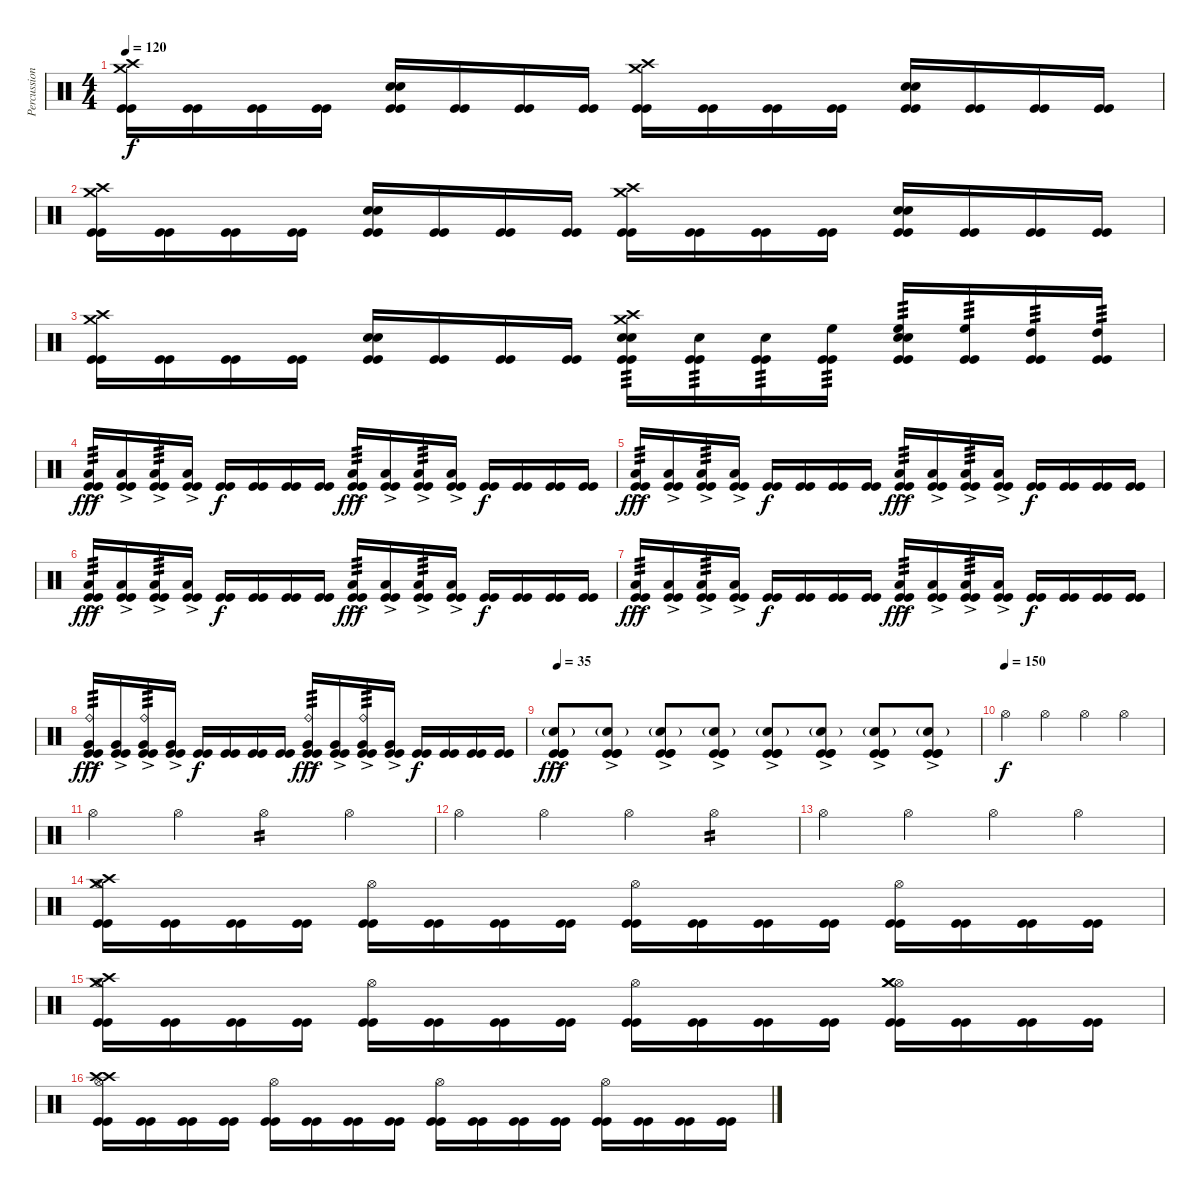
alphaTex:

\track ("Percussions" "Percussion") {instrument percussion}
\staff {score}
\articulation defaults
\ts (4 4)
\tempo 120
\clef neutral
\ks c
("Crash medium (hit)" "Crash high (hit)" "Kick (hit)" "Kick (hit)").16{dy f} ("Kick (hit)" "Kick (hit)").16 ("Kick (hit)" "Kick (hit)").16 ("Kick (hit)" "Kick (hit)").16 ("Snare (hit) 2" "Snare (hit) 2" "Kick (hit)" "Kick (hit)").16 ("Kick (hit)" "Kick (hit)").16 ("Kick (hit)" "Kick (hit)").16 ("Kick (hit)" "Kick (hit)").16 ("Crash high (hit)" "Crash medium (hit)" "Kick (hit)" "Kick (hit)").16 ("Kick (hit)" "Kick (hit)").16 ("Kick (hit)" "Kick (hit)").16 ("Kick (hit)" "Kick (hit)").16 ("Snare (hit) 2" "Snare (hit) 2" "Kick (hit)" "Kick (hit)").16 ("Kick (hit)" "Kick (hit)").16 ("Kick (hit)" "Kick (hit)").16 ("Kick (hit)" "Kick (hit)").16 |
("Crash medium (hit)" "Crash high (hit)" "Kick (hit)" "Kick (hit)").16 ("Kick (hit)" "Kick (hit)").16 ("Kick (hit)" "Kick (hit)").16 ("Kick (hit)" "Kick (hit)").16 ("Snare (hit) 2" "Snare (hit) 2" "Kick (hit)" "Kick (hit)").16 ("Kick (hit)" "Kick (hit)").16 ("Kick (hit)" "Kick (hit)").16 ("Kick (hit)" "Kick (hit)").16 ("Crash high (hit)" "Crash medium (hit)" "Kick (hit)" "Kick (hit)").16 ("Kick (hit)" "Kick (hit)").16 ("Kick (hit)" "Kick (hit)").16 ("Kick (hit)" "Kick (hit)").16 ("Snare (hit) 2" "Snare (hit) 2" "Kick (hit)" "Kick (hit)").16 ("Kick (hit)" "Kick (hit)").16 ("Kick (hit)" "Kick (hit)").16 ("Kick (hit)" "Kick (hit)").16 |
("Crash medium (hit)" "Crash high (hit)" "Kick (hit)" "Kick (hit)").16 ("Kick (hit)" "Kick (hit)").16 ("Kick (hit)" "Kick (hit)").16 ("Kick (hit)" "Kick (hit)").16 ("Snare (hit) 2" "Snare (hit) 2" "Kick (hit)" "Kick (hit)").16 ("Kick (hit)" "Kick (hit)").16 ("Kick (hit)" "Kick (hit)").16 ("Kick (hit)" "Kick (hit)").16 ("Snare (hit) 2" "Snare (hit) 2" "Crash high (hit)" "Crash medium (hit)" "Kick (hit)" "Kick (hit)").16{tp 3} ("Snare (hit) 2" "Kick (hit)" "Kick (hit)").16{tp 3} ("Snare (hit) 2" "Kick (hit)" "Kick (hit)").16{tp 3} ("High Floor Tom (hit)" "Kick (hit)" "Kick (hit)").16{tp 3} ("High Floor Tom (hit)" "Snare (hit) 2" "Snare (hit) 2" "Kick (hit)" "Kick (hit)").16{tp 3} ("High Floor Tom (hit)" "Kick (hit)" "Kick (hit)").16{tp 3} ("High Tom (hit)" "Kick (hit)" "Kick (hit)").16{tp 3} ("High Tom (hit)" "Kick (hit)" "Kick (hit)").16{tp 3} |
("Low Floor Tom (hit)"{ac} "Kick (hit)" "Kick (hit)").16{tp 3 dy fff} ("Low Floor Tom (hit)"{ac} "Kick (hit)" "Kick (hit)").16 ("Low Floor Tom (hit)"{ac} "Kick (hit)" "Kick (hit)").16{tp 3} ("Low Floor Tom (hit)"{ac} "Kick (hit)" "Kick (hit)").16 ("Kick (hit)" "Kick (hit)").16{dy f} ("Kick (hit)" "Kick (hit)").16 ("Kick (hit)" "Kick (hit)").16 ("Kick (hit)" "Kick (hit)").16 ("Low Tom (hit)"{ac} "Kick (hit)" "Kick (hit)").16{tp 3 dy fff} ("Low Tom (hit)"{ac} "Kick (hit)" "Kick (hit)").16 ("Low Tom (hit)"{ac} "Kick (hit)" "Kick (hit)").16{tp 3} ("Low Tom (hit)"{ac} "Kick (hit)" "Kick (hit)").16 ("Kick (hit)" "Kick (hit)").16{dy f} ("Kick (hit)" "Kick (hit)").16 ("Kick (hit)" "Kick (hit)").16 ("Kick (hit)" "Kick (hit)").16 |
("Low Floor Tom (hit)"{ac} "Kick (hit)" "Kick (hit)").16{tp 3 dy fff} ("Low Floor Tom (hit)"{ac} "Kick (hit)" "Kick (hit)").16 ("Low Floor Tom (hit)"{ac} "Kick (hit)" "Kick (hit)").16{tp 3} ("Low Floor Tom (hit)"{ac} "Kick (hit)" "Kick (hit)").16 ("Kick (hit)" "Kick (hit)").16{dy f} ("Kick (hit)" "Kick (hit)").16 ("Kick (hit)" "Kick (hit)").16 ("Kick (hit)" "Kick (hit)").16 ("Low Tom (hit)"{ac} "Kick (hit)" "Kick (hit)").16{tp 3 dy fff} ("Low Tom (hit)"{ac} "Kick (hit)" "Kick (hit)").16 ("Low Tom (hit)"{ac} "Kick (hit)" "Kick (hit)").16{tp 3} ("Low Tom (hit)"{ac} "Kick (hit)" "Kick (hit)").16 ("Kick (hit)" "Kick (hit)").16{dy f} ("Kick (hit)" "Kick (hit)").16 ("Kick (hit)" "Kick (hit)").16 ("Kick (hit)" "Kick (hit)").16 |
("Low Floor Tom (hit)"{ac} "Kick (hit)" "Kick (hit)").16{tp 3 dy fff} ("Low Floor Tom (hit)"{ac} "Kick (hit)" "Kick (hit)").16 ("Low Floor Tom (hit)"{ac} "Kick (hit)" "Kick (hit)").16{tp 3} ("Low Floor Tom (hit)"{ac} "Kick (hit)" "Kick (hit)").16 ("Kick (hit)" "Kick (hit)").16{dy f} ("Kick (hit)" "Kick (hit)").16 ("Kick (hit)" "Kick (hit)").16 ("Kick (hit)" "Kick (hit)").16 ("Low Tom (hit)"{ac} "Kick (hit)" "Kick (hit)").16{tp 3 dy fff} ("Low Tom (hit)"{ac} "Kick (hit)" "Kick (hit)").16 ("Low Tom (hit)"{ac} "Kick (hit)" "Kick (hit)").16{tp 3} ("Low Tom (hit)"{ac} "Kick (hit)" "Kick (hit)").16 ("Kick (hit)" "Kick (hit)").16{dy f} ("Kick (hit)" "Kick (hit)").16 ("Kick (hit)" "Kick (hit)").16 ("Kick (hit)" "Kick (hit)").16 |
("Low Floor Tom (hit)"{ac} "Kick (hit)" "Kick (hit)").16{tp 3 dy fff} ("Low Floor Tom (hit)"{ac} "Kick (hit)" "Kick (hit)").16 ("Low Floor Tom (hit)"{ac} "Kick (hit)" "Kick (hit)").16{tp 3} ("Low Floor Tom (hit)"{ac} "Kick (hit)" "Kick (hit)").16 ("Kick (hit)" "Kick (hit)").16{dy f} ("Kick (hit)" "Kick (hit)").16 ("Kick (hit)" "Kick (hit)").16 ("Kick (hit)" "Kick (hit)").16 ("Low Tom (hit)"{ac} "Kick (hit)" "Kick (hit)").16{tp 3 dy fff} ("Low Tom (hit)"{ac} "Kick (hit)" "Kick (hit)").16 ("Low Tom (hit)"{ac} "Kick (hit)" "Kick (hit)").16{tp 3} ("Low Tom (hit)"{ac} "Kick (hit)" "Kick (hit)").16 ("Kick (hit)" "Kick (hit)").16{dy f} ("Kick (hit)" "Kick (hit)").16 ("Kick (hit)" "Kick (hit)").16 ("Kick (hit)" "Kick (hit)").16 |
("Ride (bell)" "Very Low Tom (hit)"{ac} "Kick (hit)" "Kick (hit)").16{tp 3 dy fff} ("Very Low Tom (hit)"{ac} "Kick (hit)" "Kick (hit)").16 ("Ride (bell)" "Very Low Tom (hit)"{ac} "Kick (hit)" "Kick (hit)").16{tp 3} ("Very Low Tom (hit)"{ac} "Kick (hit)" "Kick (hit)").16 ("Kick (hit)" "Kick (hit)").16{dy f} ("Kick (hit)" "Kick (hit)").16 ("Kick (hit)" "Kick (hit)").16 ("Kick (hit)" "Kick (hit)").16 ("Ride (bell)" "Very Low Tom (hit)"{ac} "Kick (hit)" "Kick (hit)").16{tp 3 dy fff} ("Very Low Tom (hit)"{ac} "Kick (hit)" "Kick (hit)").16 ("Ride (bell)" "Very Low Tom (hit)"{ac} "Kick (hit)" "Kick (hit)").16{tp 3} ("Very Low Tom (hit)"{ac} "Kick (hit)" "Kick (hit)").16 ("Kick (hit)" "Kick (hit)").16{dy f} ("Kick (hit)" "Kick (hit)").16 ("Kick (hit)" "Kick (hit)").16 ("Kick (hit)" "Kick (hit)").16 |
\tempo 35
("Snare (hit) 2"{g} "Kick (hit)"{ac} "Kick (hit)"{ac} "Kick (hit)"{ac}).8{dy fff} ("Snare (hit) 2"{g} "Kick (hit)"{ac} "Kick (hit)"{ac} "Kick (hit)"{ac}).8 ("Snare (hit) 2"{g} "Kick (hit)"{ac} "Kick (hit)"{ac} "Kick (hit)"{ac}).8 ("Snare (hit) 2"{g} "Kick (hit)"{ac} "Kick (hit)"{ac} "Kick (hit)"{ac}).8 ("Snare (hit) 2"{g} "Kick (hit)"{ac} "Kick (hit)"{ac} "Kick (hit)"{ac}).8 ("Snare (hit) 2"{g} "Kick (hit)"{ac} "Kick (hit)"{ac} "Kick (hit)"{ac}).8 ("Snare (hit) 2"{g} "Kick (hit)"{ac} "Kick (hit)"{ac} "Kick (hit)"{ac}).8 ("Snare (hit) 2"{g} "Kick (hit)"{ac} "Kick (hit)"{ac} "Kick (hit)"{ac}).8 |
\tempo (150)
"Hi-Hat (open)".4{dy f} "Hi-Hat (open)".4 "Hi-Hat (open)".4 "Hi-Hat (open)".4 |
"Hi-Hat (open)".4 "Hi-Hat (open)".4 "Hi-Hat (open)".4{tp 2} "Hi-Hat (open)".4 |
"Hi-Hat (open)".4 "Hi-Hat (open)".4 "Hi-Hat (open)".4 "Hi-Hat (open)".4{tp 2} |
"Hi-Hat (open)".4 "Hi-Hat (open)".4 "Hi-Hat (open)".4 "Hi-Hat (open)".4 |
("Kick (hit)" "Kick (hit)" "Hi-Hat (open)" "Crash medium (hit)" "Crash high (hit)").16 ("Kick (hit)" "Kick (hit)").16 ("Kick (hit)" "Kick (hit)").16 ("Kick (hit)" "Kick (hit)").16 ("Kick (hit)" "Kick (hit)" "Hi-Hat (open)").16 ("Kick (hit)" "Kick (hit)").16 ("Kick (hit)" "Kick (hit)").16 ("Kick (hit)" "Kick (hit)").16 ("Kick (hit)" "Kick (hit)" "Hi-Hat (open)").16 ("Kick (hit)" "Kick (hit)").16 ("Kick (hit)" "Kick (hit)").16 ("Kick (hit)" "Kick (hit)").16 ("Kick (hit)" "Kick (hit)" "Hi-Hat (open)").16 ("Kick (hit)" "Kick (hit)").16 ("Kick (hit)" "Kick (hit)").16 ("Kick (hit)" "Kick (hit)").16 |
("Kick (hit)" "Kick (hit)" "Hi-Hat (open)" "Crash medium (hit)" "Crash high (hit)").16 ("Kick (hit)" "Kick (hit)").16 ("Kick (hit)" "Kick (hit)").16 ("Kick (hit)" "Kick (hit)").16 ("Kick (hit)" "Kick (hit)" "Hi-Hat (open)").16 ("Kick (hit)" "Kick (hit)").16 ("Kick (hit)" "Kick (hit)").16 ("Kick (hit)" "Kick (hit)").16 ("Kick (hit)" "Kick (hit)" "Hi-Hat (open)").16 ("Kick (hit)" "Kick (hit)").16 ("Kick (hit)" "Kick (hit)").16 ("Kick (hit)" "Kick (hit)").16 ("Kick (hit)" "Kick (hit)" "Hi-Hat (open)" "Crash medium (hit)" "Crash medium (hit)").16 ("Kick (hit)" "Kick (hit)").16 ("Kick (hit)" "Kick (hit)").16 ("Kick (hit)" "Kick (hit)").16 |
("Kick (hit)" "Kick (hit)" "Hi-Hat (open)" "Crash high (hit)" "Crash high (hit)").16 ("Kick (hit)" "Kick (hit)").16 ("Kick (hit)" "Kick (hit)").16 ("Kick (hit)" "Kick (hit)").16 ("Kick (hit)" "Kick (hit)" "Hi-Hat (open)").16 ("Kick (hit)" "Kick (hit)").16 ("Kick (hit)" "Kick (hit)").16 ("Kick (hit)" "Kick (hit)").16 ("Kick (hit)" "Kick (hit)" "Hi-Hat (open)").16 ("Kick (hit)" "Kick (hit)").16 ("Kick (hit)" "Kick (hit)").16 ("Kick (hit)" "Kick (hit)").16 ("Kick (hit)" "Kick (hit)" "Hi-Hat (open)").16 ("Kick (hit)" "Kick (hit)").16 ("Kick (hit)" "Kick (hit)").16 ("Kick (hit)" "Kick (hit)").16
